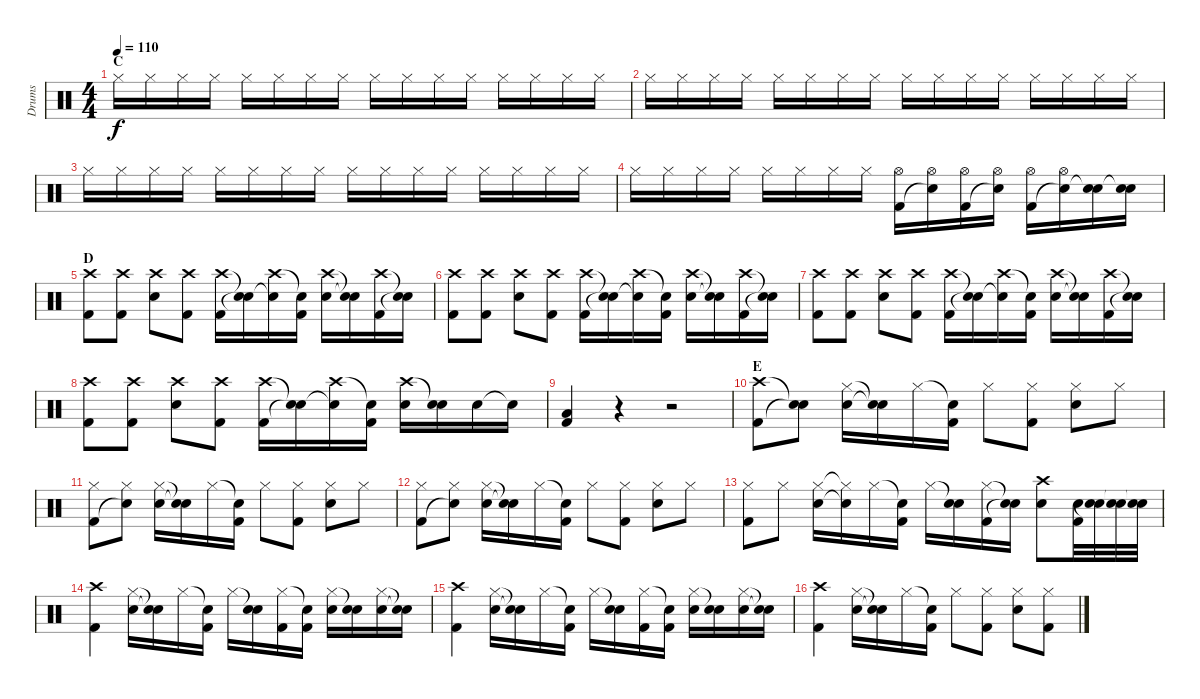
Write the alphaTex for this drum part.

\track ("Drums" "Drums") {instrument percussion}
\staff {score}
\articulation defaults
\ts (4 4)
\section ("" "C")
\tempo 110
\clef neutral
\ks c "Hi-Hat (closed)".16{dy f} "Hi-Hat (closed)".16 "Hi-Hat (closed)".16 "Hi-Hat (closed)".16 "Hi-Hat (closed)".16 "Hi-Hat (closed)".16 "Hi-Hat (closed)".16 "Hi-Hat (closed)".16 "Hi-Hat (closed)".16 "Hi-Hat (closed)".16 "Hi-Hat (closed)".16 "Hi-Hat (closed)".16 "Hi-Hat (closed)".16 "Hi-Hat (closed)".16 "Hi-Hat (closed)".16 "Hi-Hat (closed)".16
|
"Hi-Hat (closed)".16 "Hi-Hat (closed)".16 "Hi-Hat (closed)".16 "Hi-Hat (closed)".16 "Hi-Hat (closed)".16 "Hi-Hat (closed)".16 "Hi-Hat (closed)".16 "Hi-Hat (closed)".16 "Hi-Hat (closed)".16 "Hi-Hat (closed)".16 "Hi-Hat (closed)".16 "Hi-Hat (closed)".16 "Hi-Hat (closed)".16 "Hi-Hat (closed)".16 "Hi-Hat (closed)".16 "Hi-Hat (closed)".16 |
"Hi-Hat (closed)".16 "Hi-Hat (closed)".16 "Hi-Hat (closed)".16 "Hi-Hat (closed)".16 "Hi-Hat (closed)".16 "Hi-Hat (closed)".16 "Hi-Hat (closed)".16 "Hi-Hat (closed)".16 "Hi-Hat (closed)".16 "Hi-Hat (closed)".16 "Hi-Hat (closed)".16 "Hi-Hat (closed)".16 "Hi-Hat (closed)".16 "Hi-Hat (closed)".16 "Hi-Hat (closed)".16 "Hi-Hat (closed)".16 |
"Hi-Hat (closed)".16 "Hi-Hat (closed)".16 "Hi-Hat (closed)".16 "Hi-Hat (closed)".16 "Hi-Hat (closed)".16 "Hi-Hat (closed)".16 "Hi-Hat (closed)".16 "Hi-Hat (closed)".16 ("Hi-Hat (open)" "Kick (hit) 2").16 ("Hi-Hat (open)" "Snare (hit)"{t}).16 ("Hi-Hat (open)" "Kick (hit) 2").16 ("Hi-Hat (open)" "Snare (hit)"{t}).16 ("Hi-Hat (open)" "Kick (hit) 2").16 ("Hi-Hat (open)" "Snare (hit)"{t}).16 ("Snare (hit) 2" "Snare (hit)"{t}).16 ("Snare (hit) 2" "Snare (hit)"{t}).16 |
\section ("" "D")
("Crash high (hit)" "Kick (hit) 2").8 ("Crash high (hit)" "Kick (hit) 2").8 ("Crash high (hit)" "Snare (hit) 2").8 ("Crash high (hit)" "Kick (hit) 2").8 ("Crash high (hit)" "Kick (hit) 2").16 ("Snare (hit)"{t} "Snare (hit)"{t}).16 ("Crash high (hit)" "Snare (hit)"{t}).16 ("Snare (hit)"{t} "Kick (hit) 2").16 ("Crash high (hit)" "Snare (hit) 2").16 ("Snare (hit)"{t} "Snare (hit)"{t}).16 ("Crash high (hit)" "Kick (hit) 2").16 ("Snare (hit)"{t} "Snare (hit)"{t}).16 |
("Crash high (hit)" "Kick (hit) 2").8 ("Crash high (hit)" "Kick (hit) 2").8 ("Crash high (hit)" "Snare (hit) 2").8 ("Crash high (hit)" "Kick (hit) 2").8 ("Crash high (hit)" "Kick (hit) 2").16 ("Snare (hit)"{t} "Snare (hit)"{t}).16 ("Crash high (hit)" "Snare (hit)"{t}).16 ("Snare (hit)"{t} "Kick (hit) 2").16 ("Crash high (hit)" "Snare (hit) 2").16 ("Snare (hit)"{t} "Snare (hit)"{t}).16 ("Crash high (hit)" "Kick (hit) 2").16 ("Snare (hit)"{t} "Snare (hit)"{t}).16 |
("Crash high (hit)" "Kick (hit) 2").8 ("Crash high (hit)" "Kick (hit) 2").8 ("Crash high (hit)" "Snare (hit) 2").8 ("Crash high (hit)" "Kick (hit) 2").8 ("Crash high (hit)" "Kick (hit) 2").16 ("Snare (hit)"{t} "Snare (hit)"{t}).16 ("Crash high (hit)" "Snare (hit)"{t}).16 ("Snare (hit)"{t} "Kick (hit) 2").16 ("Crash high (hit)" "Snare (hit) 2").16 ("Snare (hit)"{t} "Snare (hit)"{t}).16 ("Crash high (hit)" "Kick (hit) 2").16 ("Snare (hit)"{t} "Snare (hit)"{t}).16 |
("Crash high (hit)" "Kick (hit) 2").8 ("Crash high (hit)" "Kick (hit) 2").8 ("Crash high (hit)" "Snare (hit) 2").8 ("Crash high (hit)" "Kick (hit) 2").8 ("Crash high (hit)" "Kick (hit) 2").16 ("Snare (hit)"{t} "Snare (hit)"{t}).16 ("Crash high (hit)" "Snare (hit)"{t}).16 ("Snare (hit)"{t} "Kick (hit) 2").16 ("Crash high (hit)" "Snare (hit) 2").16 ("Snare (hit)"{t} "Snare (hit) 2").16 "Snare (hit) 2".16 "Snare (hit)"{t}.16 |
("Low Tom (hit)" "Kick (hit) 2").4 r.4 r.2 |
\section ("" "E")
("Crash high (hit)" "Kick (hit) 2").8 ("Snare (hit)"{t} "Snare (hit)"{t}).8 ("Hi-Hat (closed)" "Snare (hit) 2").16 ("Snare (hit)"{t} "Snare (hit)"{t}).16 "Hi-Hat (closed)".16 ("Snare (hit)"{t} "Kick (hit) 2").16 "Hi-Hat (closed)".8 ("Hi-Hat (closed)" "Kick (hit) 2").8 ("Hi-Hat (closed)" "Snare (hit) 2").8 "Hi-Hat (closed)".8 |
("Hi-Hat (closed)" "Kick (hit) 2").8 ("Hi-Hat (closed)" "Snare (hit)"{t}).8 ("Hi-Hat (closed)" "Snare (hit) 2").16 ("Snare (hit)"{t} "Snare (hit)"{t}).16 "Hi-Hat (closed)".16 ("Snare (hit)"{t} "Kick (hit) 2").16 "Hi-Hat (closed)".8 ("Hi-Hat (closed)" "Kick (hit) 2").8 ("Hi-Hat (closed)" "Snare (hit) 2").8 "Hi-Hat (closed)".8 |
("Hi-Hat (closed)" "Kick (hit) 2").8 ("Hi-Hat (closed)" "Snare (hit)"{t}).8 ("Hi-Hat (closed)" "Snare (hit) 2").16 ("Snare (hit)"{t} "Snare (hit)"{t}).16 "Hi-Hat (closed)".16 ("Snare (hit)"{t} "Kick (hit) 2").16 "Hi-Hat (closed)".8 ("Hi-Hat (closed)" "Kick (hit) 2").8 ("Hi-Hat (closed)" "Snare (hit) 2").8 "Hi-Hat (closed)".8 |
("Hi-Hat (closed)" "Kick (hit) 2").8 "Hi-Hat (closed)".8 ("Hi-Hat (closed)" "Snare (hit) 2").16 ("Hi-Hat (closed)"{t} "Snare (hit)"{t}).16 "Hi-Hat (closed)".16 ("Snare (hit)"{t} "Kick (hit) 2").16 "Hi-Hat (closed)".16 ("Snare (hit)"{t} "Snare (hit) 2").16 ("Hi-Hat (closed)" "Kick (hit) 2").16 ("Snare (hit)"{t} "Snare (hit)"{t}).16 ("Crash high (hit)" "Snare (hit) 2").8 ("Snare (hit) 2" "Kick (hit) 2").32 ("Snare (hit) 2" "Snare (hit)"{t}).32 ("Snare (hit) 2" "Snare (hit)"{t}).32 ("Snare (hit) 2" "Snare (hit)"{t}).32 |
("Crash high (hit)" "Kick (hit) 2").4 ("Hi-Hat (closed)" "Snare (hit) 2").16 ("Snare (hit)"{t} "Snare (hit)"{t}).16 "Hi-Hat (closed)".16 ("Snare (hit)"{t} "Kick (hit) 2").16 "Hi-Hat (closed)".16 ("Snare (hit)"{t} "Snare (hit) 2").16 ("Hi-Hat (closed)" "Kick (hit) 2").16 ("Snare (hit)"{t} "Kick (hit) 2").16 ("Hi-Hat (closed)" "Snare (hit) 2").16 ("Snare (hit)"{t} "Snare (hit) 2").16 ("Hi-Hat (closed)" "Snare (hit) 2").16 ("Snare (hit)"{t} "Snare (hit) 2"{t}).16 |
("Crash high (hit)" "Kick (hit) 2").4 ("Hi-Hat (closed)" "Snare (hit) 2").16 ("Snare (hit)"{t} "Snare (hit)"{t}).16 "Hi-Hat (closed)".16 ("Snare (hit)"{t} "Kick (hit) 2").16 "Hi-Hat (closed)".16 ("Snare (hit)"{t} "Snare (hit) 2").16 ("Hi-Hat (closed)" "Kick (hit) 2").16 ("Snare (hit)"{t} "Kick (hit) 2").16 ("Hi-Hat (closed)" "Snare (hit) 2").16 ("Snare (hit)"{t} "Snare (hit) 2").16 ("Hi-Hat (closed)" "Snare (hit) 2").16 ("Snare (hit)"{t} "Snare (hit) 2"{t}).16 |
("Crash high (hit)" "Kick (hit) 2").4 ("Hi-Hat (closed)" "Snare (hit) 2").16 ("Snare (hit)"{t} "Snare (hit)"{t}).16 "Hi-Hat (closed)".16 ("Snare (hit)"{t} "Kick (hit) 2").16 "Hi-Hat (closed)".8 ("Hi-Hat (closed)" "Kick (hit) 2").8 ("Hi-Hat (closed)" "Snare (hit) 2").8 ("Hi-Hat (closed)" "Kick (hit) 2").8
